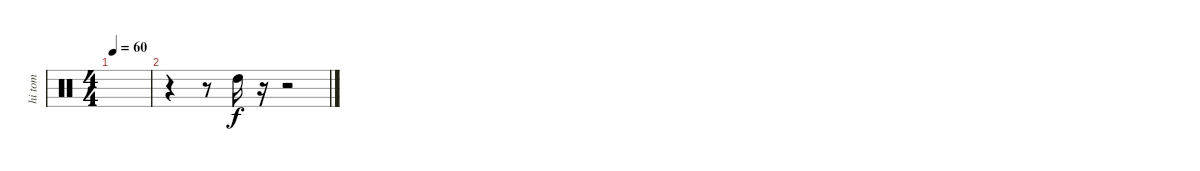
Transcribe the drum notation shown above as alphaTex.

\track ("hi tom" "hi tom") {instrument percussion}
\staff {score}
\articulation defaults
\ts (4 4)
\tempo 60
\clef neutral
\ks c
|
r.4 r.8 "High Tom (hit)".16 r.16 r.2
